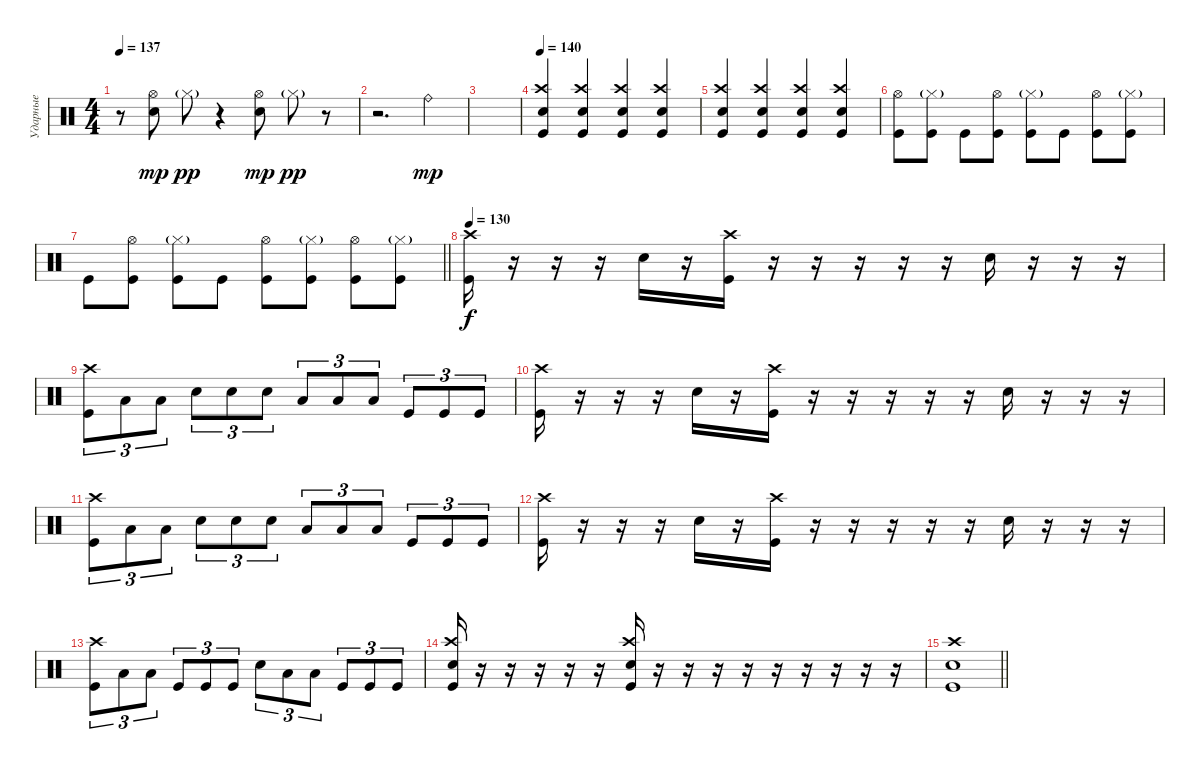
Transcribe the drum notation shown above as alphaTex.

\track ("Ударные" "Ударные") {instrument percussion}
\staff {score}
\articulation defaults
\ts (4 4)
\tempo 137
\clef neutral
\ks c
r.8{dy pp} ("Hi-Hat (open)" "Electric Snare (hit)").8{dy mp} "Hi-Hat (closed)"{g}.8{dy pp} r.4 ("Hi-Hat (open)" "Electric Snare (hit)").8{dy mp} "Hi-Hat (closed)"{g}.8{dy pp} r.8 |
r.2{d} "Ride (bell)".4{dy mp} |
|
\tempo 140
("Crash high (hit)" "Electric Snare (hit)" "Kick (hit)").4 ("Crash high (hit)" "Electric Snare (hit)" "Kick (hit)").4 ("Crash high (hit)" "Electric Snare (hit)" "Kick (hit)").4 ("Crash high (hit)" "Electric Snare (hit)" "Kick (hit)").4 |
("Crash high (hit)" "Electric Snare (hit)" "Kick (hit)").4 ("Crash high (hit)" "Electric Snare (hit)" "Kick (hit)").4 ("Crash high (hit)" "Electric Snare (hit)" "Kick (hit)").4 ("Crash high (hit)" "Electric Snare (hit)" "Kick (hit)").4 |
("Hi-Hat (open)" "Kick (hit)").8 ("Hi-Hat (closed)"{g} "Kick (hit)").8 "Kick (hit)".8 ("Hi-Hat (open)" "Kick (hit)").8 ("Hi-Hat (closed)"{g} "Kick (hit)").8 "Kick (hit)".8 ("Hi-Hat (open)" "Kick (hit)").8 ("Hi-Hat (closed)"{g} "Kick (hit)").8 |
\barLineRight lightlight "Kick (hit)".8
("Hi-Hat (open)" "Kick (hit)").8 ("Hi-Hat (closed)"{g} "Kick (hit)").8 "Kick (hit)".8 ("Hi-Hat (open)" "Kick (hit)").8 ("Hi-Hat (closed)"{g} "Kick (hit)").8 ("Hi-Hat (open)" "Kick (hit)").8 ("Hi-Hat (closed)"{g} "Kick (hit)").8 |
\tempo 130
("Crash high (hit)" "Kick (hit)").16{dy f} r.16 r.16 r.16 "Electric Snare (hit)".16 r.16 ("Crash high (hit)" "Kick (hit)").16 r.16 r.16 r.16 r.16 r.16 "Electric Snare (hit)".16 r.16 r.16 r.16 |
("Crash high (hit)" "Kick (hit)").8{tu (3 2)} "Low Tom (hit)".8{tu (3 2)} "Low Tom (hit)".8{tu (3 2)} "Snare (hit) 2".8{tu (3 2)} "Snare (hit) 2".8{tu (3 2)} "Snare (hit) 2".8{tu (3 2)} "Low Tom (hit)".8{tu (3 2)} "Low Tom (hit)".8{tu (3 2)} "Low Tom (hit)".8{tu (3 2)} "Kick (hit)".8{tu (3 2)} "Kick (hit)".8{tu (3 2)} "Kick (hit)".8{tu (3 2)} |
("Crash high (hit)" "Kick (hit)").16 r.16 r.16 r.16 "Electric Snare (hit)".16 r.16 ("Crash high (hit)" "Kick (hit)").16 r.16 r.16 r.16 r.16 r.16 "Electric Snare (hit)".16 r.16 r.16 r.16 |
("Crash high (hit)" "Kick (hit)").8{tu (3 2)} "Low Tom (hit)".8{tu (3 2)} "Low Tom (hit)".8{tu (3 2)} "Snare (hit) 2".8{tu (3 2)} "Snare (hit) 2".8{tu (3 2)} "Snare (hit) 2".8{tu (3 2)} "Low Tom (hit)".8{tu (3 2)} "Low Tom (hit)".8{tu (3 2)} "Low Tom (hit)".8{tu (3 2)} "Kick (hit)".8{tu (3 2)} "Kick (hit)".8{tu (3 2)} "Kick (hit)".8{tu (3 2)} |
("Crash high (hit)" "Kick (hit)").16 r.16 r.16 r.16 "Electric Snare (hit)".16 r.16 ("Crash high (hit)" "Kick (hit)").16 r.16 r.16 r.16 r.16 r.16 "Electric Snare (hit)".16 r.16 r.16 r.16 |
("Crash high (hit)" "Kick (hit)").8{tu (3 2)} "Low Tom (hit)".8{tu (3 2)} "Low Tom (hit)".8{tu (3 2)} "Kick (hit)".8{tu (3 2)} "Kick (hit)".8{tu (3 2)} "Kick (hit)".8{tu (3 2)} "Snare (hit) 2".8{tu (3 2)} "Low Tom (hit)".8{tu (3 2)} "Low Tom (hit)".8{tu (3 2)} "Kick (hit)".8{tu (3 2)} "Kick (hit)".8{tu (3 2)} "Kick (hit)".8{tu (3 2)} |
("Crash high (hit)" "Electric Snare (hit)" "Kick (hit)").16 r.16 r.16 r.16 r.16 r.16 ("Crash high (hit)" "Electric Snare (hit)" "Kick (hit)").16 r.16 r.16 r.16 r.16 r.16 r.16 r.16 r.16 r.16 |
\barLineRight lightlight
("Crash high (hit)" "Electric Snare (hit)" "Kick (hit)").1
